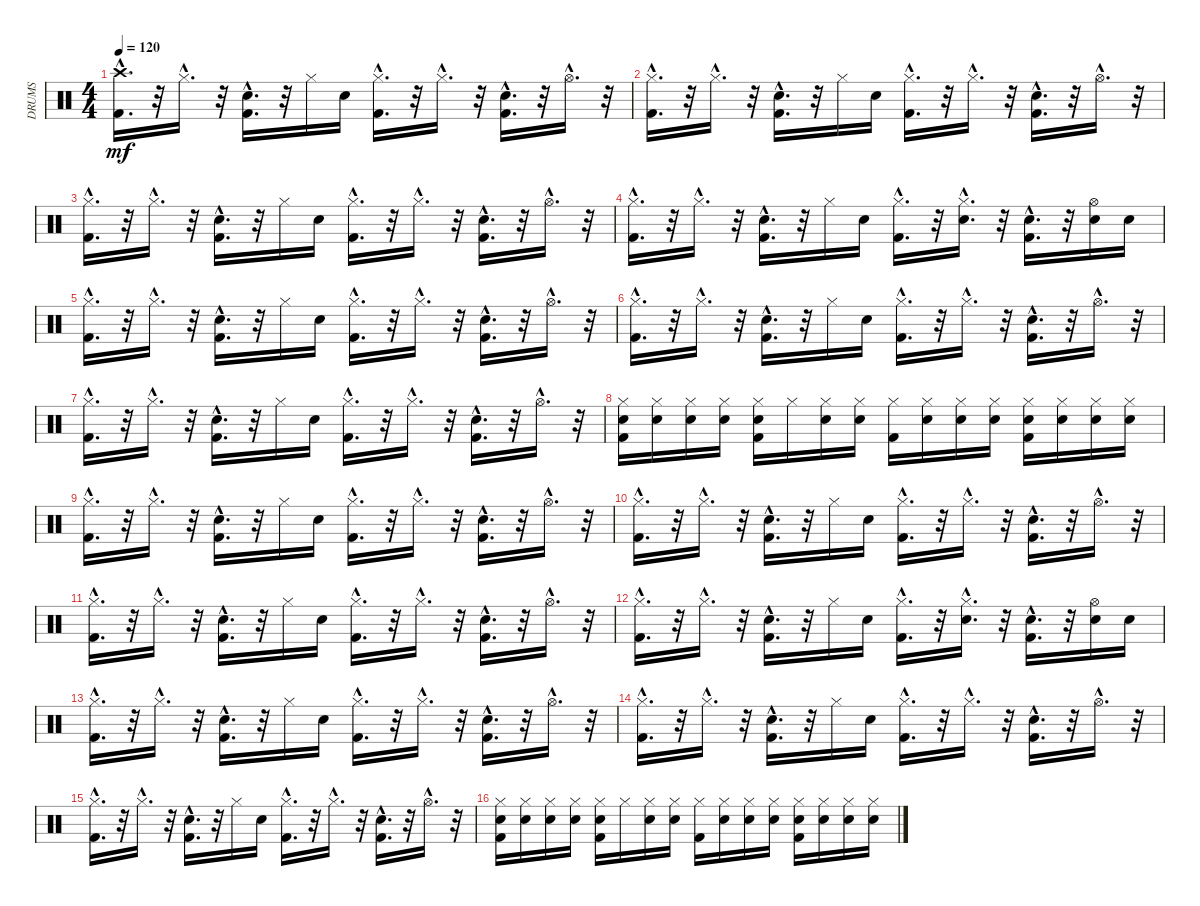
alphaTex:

\track ("DRUMS" "DRUMS") {instrument percussion}
\staff {score}
\articulation defaults
\ts (4 4)
\tempo 120
\clef neutral
\ks c
("Crash high (hit)"{hac} "Kick (hit) 2"{hac}).16{d dy mf} r.32 "Hi-Hat (closed)"{hac}.16{d} r.32 ("Electric Snare (hit)"{hac} "Kick (hit) 2"{hac}).16{d} r.32 "Hi-Hat (closed)".16 "Electric Snare (hit)".16 ("Kick (hit) 2"{hac} "Hi-Hat (closed)"{hac}).16{d} r.32 "Hi-Hat (closed)"{hac}.16{d} r.32 ("Electric Snare (hit)"{hac} "Kick (hit) 2"{hac}).16{d} r.32 "Hi-Hat (open)"{hac}.16{d} r.32 |
("Kick (hit) 2"{hac} "Hi-Hat (closed)"{hac}).16{d} r.32 "Hi-Hat (closed)"{hac}.16{d} r.32 ("Kick (hit) 2"{hac} "Electric Snare (hit)"{hac}).16{d} r.32 "Hi-Hat (closed)".16 "Electric Snare (hit)".16 ("Kick (hit) 2"{hac} "Hi-Hat (closed)"{hac}).16{d} r.32 "Hi-Hat (closed)"{hac}.16{d} r.32 ("Kick (hit) 2"{hac} "Electric Snare (hit)"{hac}).16{d} r.32 "Hi-Hat (open)"{hac}.16{d} r.32 |
("Kick (hit) 2"{hac} "Hi-Hat (closed)"{hac}).16{d} r.32 "Hi-Hat (closed)"{hac}.16{d} r.32 ("Kick (hit) 2"{hac} "Electric Snare (hit)"{hac}).16{d} r.32 "Hi-Hat (closed)".16 "Electric Snare (hit)".16 ("Kick (hit) 2"{hac} "Hi-Hat (closed)"{hac}).16{d} r.32 "Hi-Hat (closed)"{hac}.16{d} r.32 ("Kick (hit) 2"{hac} "Electric Snare (hit)"{hac}).16{d} r.32 "Hi-Hat (open)"{hac}.16{d} r.32 |
("Kick (hit) 2"{hac} "Hi-Hat (closed)"{hac}).16{d} r.32 "Hi-Hat (closed)"{hac}.16{d} r.32 ("Kick (hit) 2"{hac} "Electric Snare (hit)"{hac}).16{d} r.32 "Hi-Hat (closed)".16 "Electric Snare (hit)".16 ("Kick (hit) 2"{hac} "Hi-Hat (closed)"{hac}).16{d} r.32 ("Electric Snare (hit)"{hac} "Hi-Hat (closed)"{hac}).16{d} r.32 ("Kick (hit) 2"{hac} "Electric Snare (hit)"{hac}).16{d} r.32 ("Electric Snare (hit)" "Hi-Hat (open)").16 "Electric Snare (hit)".16 |
("Kick (hit) 2"{hac} "Hi-Hat (closed)"{hac}).16{d} r.32 "Hi-Hat (closed)"{hac}.16{d} r.32 ("Kick (hit) 2"{hac} "Electric Snare (hit)"{hac}).16{d} r.32 "Hi-Hat (closed)".16 "Electric Snare (hit)".16 ("Hi-Hat (closed)"{hac} "Kick (hit) 2"{hac}).16{d} r.32 "Hi-Hat (closed)"{hac}.16{d} r.32 ("Kick (hit) 2"{hac} "Electric Snare (hit)"{hac}).16{d} r.32 "Hi-Hat (open)"{hac}.16{d} r.32 |
("Hi-Hat (closed)"{hac} "Kick (hit) 2"{hac}).16{d} r.32 "Hi-Hat (closed)"{hac}.16{d} r.32 ("Electric Snare (hit)"{hac} "Kick (hit) 2"{hac}).16{d} r.32 "Hi-Hat (closed)".16 "Electric Snare (hit)".16 ("Hi-Hat (closed)"{hac} "Kick (hit) 2"{hac}).16{d} r.32 "Hi-Hat (closed)"{hac}.16{d} r.32 ("Electric Snare (hit)"{hac} "Kick (hit) 2"{hac}).16{d} r.32 "Hi-Hat (open)"{hac}.16{d} r.32 |
("Hi-Hat (closed)"{hac} "Kick (hit) 2"{hac}).16{d} r.32 "Hi-Hat (closed)"{hac}.16{d} r.32 ("Electric Snare (hit)"{hac} "Kick (hit) 2"{hac}).16{d} r.32 "Hi-Hat (closed)".16 "Electric Snare (hit)".16 ("Hi-Hat (closed)"{hac} "Kick (hit) 2"{hac}).16{d} r.32 "Hi-Hat (closed)"{hac}.16{d} r.32 ("Electric Snare (hit)"{hac} "Kick (hit) 2"{hac}).16{d} r.32 "Hi-Hat (open)"{hac}.16{d} r.32 |
("Electric Snare (hit)" "Kick (hit) 2" "Hi-Hat (closed)").16 ("Electric Snare (hit)" "Hi-Hat (closed)").16 ("Hi-Hat (closed)" "Electric Snare (hit)").16 ("Electric Snare (hit)" "Hi-Hat (closed)").16 ("Hi-Hat (closed)" "Kick (hit) 2" "Electric Snare (hit)").16 "Hi-Hat (closed)".16 ("Electric Snare (hit)" "Hi-Hat (closed)").16 ("Hi-Hat (closed)" "Electric Snare (hit)").16 ("Hi-Hat (closed)" "Kick (hit) 2").16 ("Hi-Hat (closed)" "Electric Snare (hit)").16 ("Hi-Hat (closed)" "Electric Snare (hit)").16 ("Hi-Hat (closed)" "Electric Snare (hit)").16 ("Hi-Hat (closed)" "Kick (hit) 2" "Electric Snare (hit)").16 ("Hi-Hat (closed)" "Electric Snare (hit)").16 ("Electric Snare (hit)" "Hi-Hat (closed)").16 ("Electric Snare (hit)" "Hi-Hat (closed)").16 |
("Kick (hit) 2"{hac} "Hi-Hat (closed)"{hac}).16{d} r.32 "Hi-Hat (closed)"{hac}.16{d} r.32 ("Kick (hit) 2"{hac} "Electric Snare (hit)"{hac}).16{d} r.32 "Hi-Hat (closed)".16 "Electric Snare (hit)".16 ("Hi-Hat (closed)"{hac} "Kick (hit) 2"{hac}).16{d} r.32 "Hi-Hat (closed)"{hac}.16{d} r.32 ("Kick (hit) 2"{hac} "Electric Snare (hit)"{hac}).16{d} r.32 "Hi-Hat (open)"{hac}.16{d} r.32 |
("Hi-Hat (closed)"{hac} "Kick (hit) 2"{hac}).16{d} r.32 "Hi-Hat (closed)"{hac}.16{d} r.32 ("Electric Snare (hit)"{hac} "Kick (hit) 2"{hac}).16{d} r.32 "Hi-Hat (closed)".16 "Electric Snare (hit)".16 ("Hi-Hat (closed)"{hac} "Kick (hit) 2"{hac}).16{d} r.32 "Hi-Hat (closed)"{hac}.16{d} r.32 ("Electric Snare (hit)"{hac} "Kick (hit) 2"{hac}).16{d} r.32 "Hi-Hat (open)"{hac}.16{d} r.32 |
("Hi-Hat (closed)"{hac} "Kick (hit) 2"{hac}).16{d} r.32 "Hi-Hat (closed)"{hac}.16{d} r.32 ("Electric Snare (hit)"{hac} "Kick (hit) 2"{hac}).16{d} r.32 "Hi-Hat (closed)".16 "Electric Snare (hit)".16 ("Hi-Hat (closed)"{hac} "Kick (hit) 2"{hac}).16{d} r.32 "Hi-Hat (closed)"{hac}.16{d} r.32 ("Electric Snare (hit)"{hac} "Kick (hit) 2"{hac}).16{d} r.32 "Hi-Hat (open)"{hac}.16{d} r.32 |
("Hi-Hat (closed)"{hac} "Kick (hit) 2"{hac}).16{d} r.32 "Hi-Hat (closed)"{hac}.16{d} r.32 ("Electric Snare (hit)"{hac} "Kick (hit) 2"{hac}).16{d} r.32 "Hi-Hat (closed)".16 "Electric Snare (hit)".16 ("Kick (hit) 2"{hac} "Hi-Hat (closed)"{hac}).16{d} r.32 ("Hi-Hat (closed)"{hac} "Electric Snare (hit)"{hac}).16{d} r.32 ("Electric Snare (hit)"{hac} "Kick (hit) 2"{hac}).16{d} r.32 ("Hi-Hat (open)" "Electric Snare (hit)").16 "Electric Snare (hit)".16 |
("Hi-Hat (closed)"{hac} "Kick (hit) 2"{hac}).16{d} r.32 "Hi-Hat (closed)"{hac}.16{d} r.32 ("Electric Snare (hit)"{hac} "Kick (hit) 2"{hac}).16{d} r.32 "Hi-Hat (closed)".16 "Electric Snare (hit)".16 ("Kick (hit) 2"{hac} "Hi-Hat (closed)"{hac}).16{d} r.32 "Hi-Hat (closed)"{hac}.16{d} r.32 ("Electric Snare (hit)"{hac} "Kick (hit) 2"{hac}).16{d} r.32 "Hi-Hat (open)"{hac}.16{d} r.32 |
("Kick (hit) 2"{hac} "Hi-Hat (closed)"{hac}).16{d} r.32 "Hi-Hat (closed)"{hac}.16{d} r.32 ("Kick (hit) 2"{hac} "Electric Snare (hit)"{hac}).16{d} r.32 "Hi-Hat (closed)".16 "Electric Snare (hit)".16 ("Kick (hit) 2"{hac} "Hi-Hat (closed)"{hac}).16{d} r.32 "Hi-Hat (closed)"{hac}.16{d} r.32 ("Kick (hit) 2"{hac} "Electric Snare (hit)"{hac}).16{d} r.32 "Hi-Hat (open)"{hac}.16{d} r.32 |
("Kick (hit) 2"{hac} "Hi-Hat (closed)"{hac}).16{d} r.32 "Hi-Hat (closed)"{hac}.16{d} r.32 ("Kick (hit) 2"{hac} "Electric Snare (hit)"{hac}).16{d} r.32 "Hi-Hat (closed)".16 "Electric Snare (hit)".16 ("Kick (hit) 2"{hac} "Hi-Hat (closed)"{hac}).16{d} r.32 "Hi-Hat (closed)"{hac}.16{d} r.32 ("Kick (hit) 2"{hac} "Electric Snare (hit)"{hac}).16{d} r.32 "Hi-Hat (open)"{hac}.16{d} r.32 |
("Electric Snare (hit)" "Kick (hit) 2" "Hi-Hat (closed)").16 ("Electric Snare (hit)" "Hi-Hat (closed)").16 ("Hi-Hat (closed)" "Electric Snare (hit)").16 ("Electric Snare (hit)" "Hi-Hat (closed)").16 ("Hi-Hat (closed)" "Kick (hit) 2" "Electric Snare (hit)").16 "Hi-Hat (closed)".16 ("Electric Snare (hit)" "Hi-Hat (closed)").16 ("Hi-Hat (closed)" "Electric Snare (hit)").16 ("Hi-Hat (closed)" "Kick (hit) 2").16 ("Hi-Hat (closed)" "Electric Snare (hit)").16 ("Hi-Hat (closed)" "Electric Snare (hit)").16 ("Hi-Hat (closed)" "Electric Snare (hit)").16 ("Hi-Hat (closed)" "Kick (hit) 2" "Electric Snare (hit)").16 ("Hi-Hat (closed)" "Electric Snare (hit)").16 ("Electric Snare (hit)" "Hi-Hat (closed)").16 ("Electric Snare (hit)" "Hi-Hat (closed)").16
